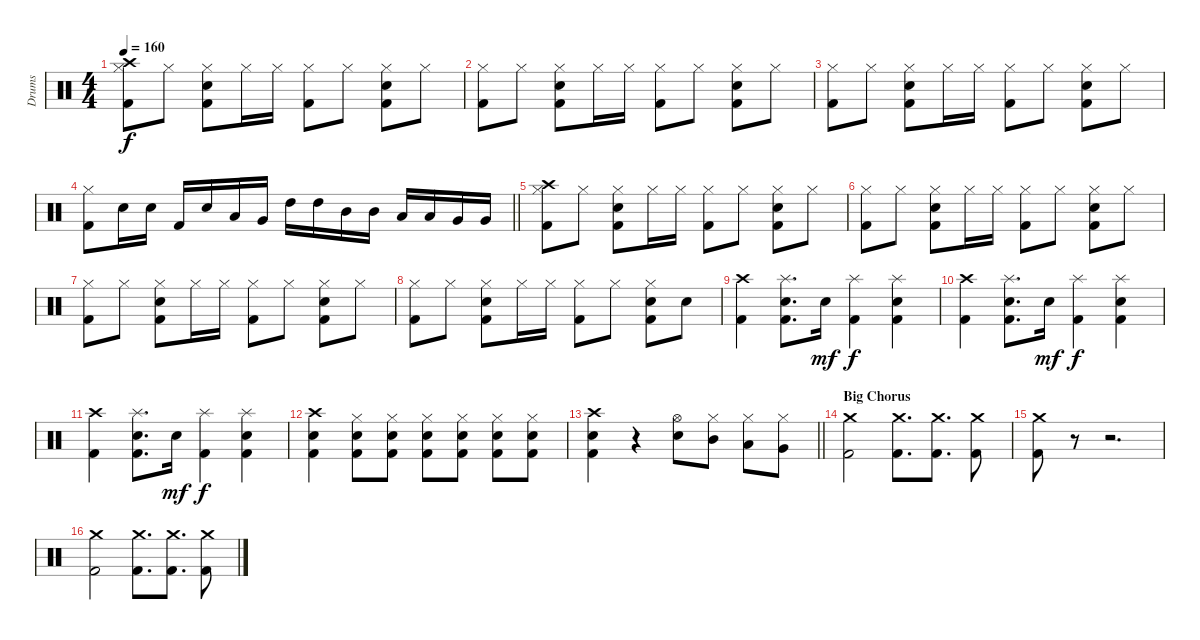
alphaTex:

\track ("Drums" "Drums") {instrument percussion}
\staff {score}
\articulation defaults
\ts (4 4)
\tempo 160
\clef neutral
\ks c
("Hi-Hat (closed)" "Crash high (hit)" "Kick (hit) 2").8{dy f} "Hi-Hat (closed)".8 ("Hi-Hat (closed)" "Snare (hit) 2" "Kick (hit) 2").8 "Hi-Hat (closed)".16 "Hi-Hat (closed)".16 ("Hi-Hat (closed)" "Kick (hit) 2").8 "Hi-Hat (closed)".8 ("Hi-Hat (closed)" "Snare (hit) 2" "Kick (hit) 2").8 "Hi-Hat (closed)".8 |
("Hi-Hat (closed)" "Kick (hit) 2").8 "Hi-Hat (closed)".8 ("Hi-Hat (closed)" "Snare (hit) 2" "Kick (hit) 2").8 "Hi-Hat (closed)".16 "Hi-Hat (closed)".16 ("Hi-Hat (closed)" "Kick (hit) 2").8 "Hi-Hat (closed)".8 ("Hi-Hat (closed)" "Snare (hit) 2" "Kick (hit) 2").8 "Hi-Hat (closed)".8 |
("Hi-Hat (closed)" "Kick (hit) 2").8 "Hi-Hat (closed)".8 ("Hi-Hat (closed)" "Snare (hit) 2" "Kick (hit) 2").8 "Hi-Hat (closed)".16 "Hi-Hat (closed)".16 ("Hi-Hat (closed)" "Kick (hit) 2").8 "Hi-Hat (closed)".8 ("Hi-Hat (closed)" "Snare (hit) 2" "Kick (hit) 2").8 "Hi-Hat (closed)".8 |
\barLineRight lightlight
("Hi-Hat (closed)" "Kick (hit) 2").8 "Snare (hit) 2".16 "Snare (hit) 2".16 "Kick (hit) 2".16 "Snare (hit) 2".16 "Low Tom (hit)".16 "Very Low Tom (hit)".16 "High Tom (hit)".16 "High Tom (hit)".16 "Mid Tom (hit)".16 "Mid Tom (hit)".16 "Low Tom (hit)".16 "Low Tom (hit)".16 "Very Low Tom (hit)".16 "Very Low Tom (hit)".16 |
("Hi-Hat (closed)" "Crash high (hit)" "Kick (hit) 2").8 "Hi-Hat (closed)".8 ("Hi-Hat (closed)" "Snare (hit) 2" "Kick (hit) 2").8 "Hi-Hat (closed)".16 "Hi-Hat (closed)".16 ("Hi-Hat (closed)" "Kick (hit) 2").8 "Hi-Hat (closed)".8 ("Hi-Hat (closed)" "Snare (hit) 2" "Kick (hit) 2").8 "Hi-Hat (closed)".8 |
("Hi-Hat (closed)" "Kick (hit) 2").8 "Hi-Hat (closed)".8 ("Hi-Hat (closed)" "Snare (hit) 2" "Kick (hit) 2").8 "Hi-Hat (closed)".16 "Hi-Hat (closed)".16 ("Hi-Hat (closed)" "Kick (hit) 2").8 "Hi-Hat (closed)".8 ("Hi-Hat (closed)" "Snare (hit) 2" "Kick (hit) 2").8 "Hi-Hat (closed)".8 |
("Hi-Hat (closed)" "Kick (hit) 2").8 "Hi-Hat (closed)".8 ("Hi-Hat (closed)" "Snare (hit) 2" "Kick (hit) 2").8 "Hi-Hat (closed)".16 "Hi-Hat (closed)".16 ("Hi-Hat (closed)" "Kick (hit) 2").8 "Hi-Hat (closed)".8 ("Hi-Hat (closed)" "Snare (hit) 2" "Kick (hit) 2").8 "Hi-Hat (closed)".8 |
("Hi-Hat (closed)" "Kick (hit) 2").8 "Hi-Hat (closed)".8 ("Hi-Hat (closed)" "Snare (hit) 2" "Kick (hit) 2").8 "Hi-Hat (closed)".16 "Hi-Hat (closed)".16 ("Hi-Hat (closed)" "Kick (hit) 2").8 "Hi-Hat (closed)".8 ("Hi-Hat (closed)" "Snare (hit) 2" "Kick (hit) 2").8 "Snare (hit) 2".8 |
("Crash high (hit)" "Kick (hit) 2").4 ("Splash (hit)" "Snare (hit) 2" "Kick (hit) 2").8{d} "Snare (hit) 2".16{dy mf} ("Splash (hit)" "Kick (hit) 2").4{dy f} ("Splash (hit)" "Snare (hit) 2" "Kick (hit) 2").4 |
("Crash high (hit)" "Kick (hit) 2").4 ("Splash (hit)" "Snare (hit) 2" "Kick (hit) 2").8{d} "Snare (hit) 2".16{dy mf} ("Splash (hit)" "Kick (hit) 2").4{dy f} ("Splash (hit)" "Snare (hit) 2" "Kick (hit) 2").4 |
("Crash high (hit)" "Kick (hit) 2").4 ("Splash (hit)" "Snare (hit) 2" "Kick (hit) 2").8{d} "Snare (hit) 2".16{dy mf} ("Splash (hit)" "Kick (hit) 2").4{dy f} ("Splash (hit)" "Snare (hit) 2" "Kick (hit) 2").4 |
("Crash high (hit)" "Snare (hit) 2" "Kick (hit) 2").4 ("Hi-Hat (closed)" "Snare (hit) 2" "Kick (hit) 2").8 ("Hi-Hat (closed)" "Snare (hit) 2" "Kick (hit) 2").8 ("Hi-Hat (closed)" "Snare (hit) 2" "Kick (hit) 2").8 ("Hi-Hat (closed)" "Snare (hit) 2" "Kick (hit) 2").8 ("Hi-Hat (closed)" "Snare (hit) 2" "Kick (hit) 2").8 ("Hi-Hat (closed)" "Snare (hit) 2" "Kick (hit) 2").8 |
\barLineRight lightlight
("Crash high (hit)" "Snare (hit) 2" "Kick (hit) 2").4 r.4 ("Hi-Hat (open)" "Snare (hit) 2").8 ("Hi-Hat (closed)" "Mid Tom (hit)").8 ("Hi-Hat (closed)" "Low Tom (hit)").8 ("Hi-Hat (closed)" "Very Low Tom (hit)").8 |
\section ("" "Big Chorus")
("Crash medium (hit)" "Kick (hit) 2").2 ("Crash medium (hit)" "Kick (hit) 2").8{d} ("Crash medium (hit)" "Kick (hit) 2").8{d} ("Crash medium (hit)" "Kick (hit) 2").8 |
("Crash medium (hit)" "Kick (hit) 2").8 r.8 r.2{d} |
("Crash medium (hit)" "Kick (hit) 2").2 ("Crash medium (hit)" "Kick (hit) 2").8{d} ("Crash medium (hit)" "Kick (hit) 2").8{d} ("Crash medium (hit)" "Kick (hit) 2").8
